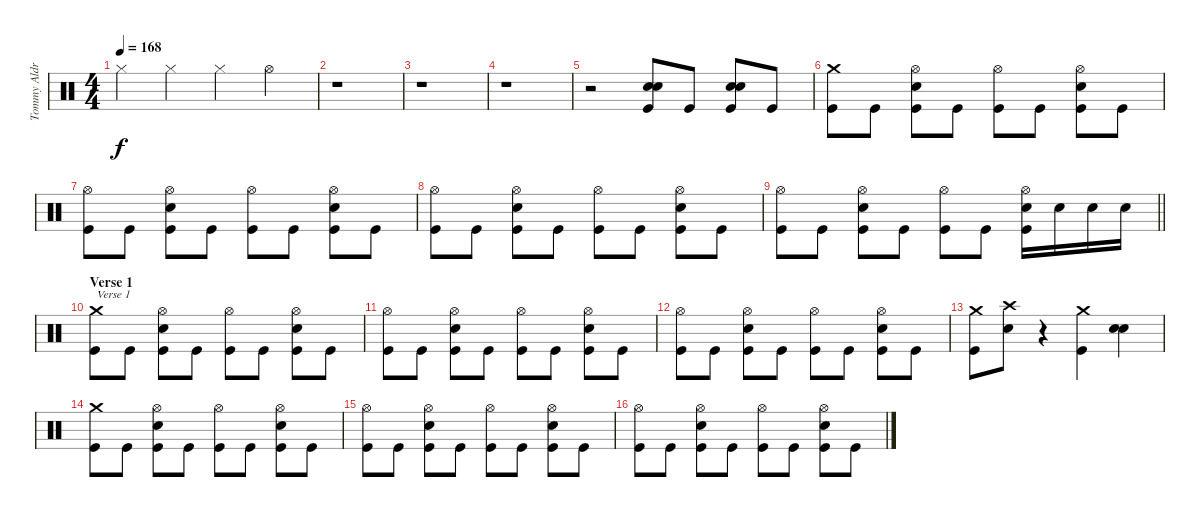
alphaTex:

\track ("Tommy Aldrige" "Tommy Aldr") {instrument percussion}
\staff {score}
\articulation defaults
\ts (4 4)
\tempo 168
\clef neutral
\ks c "Hi-Hat (closed)".4{dy f} "Hi-Hat (closed)".4 "Hi-Hat (closed)".4 "Hi-Hat (open)".4
|
r.1 |
r.1 |
r.1 |
r.2 ("Snare (hit) 2" "Snare (hit) 2" "Kick (hit)").8{bd 240} "Kick (hit)".8 ("Snare (hit) 2" "Snare (hit) 2" "Kick (hit)").8{bd 240} "Kick (hit)".8 |
("Crash medium (hit)" "Kick (hit)").8 "Kick (hit)".8 ("Hi-Hat (open)" "Snare (hit) 2" "Kick (hit)").8 "Kick (hit)".8 ("Hi-Hat (open)" "Kick (hit)").8 "Kick (hit)".8 ("Hi-Hat (open)" "Snare (hit) 2" "Kick (hit)").8 "Kick (hit)".8 |
("Hi-Hat (open)" "Kick (hit)").8 "Kick (hit)".8 ("Hi-Hat (open)" "Snare (hit) 2" "Kick (hit)").8 "Kick (hit)".8 ("Hi-Hat (open)" "Kick (hit)").8 "Kick (hit)".8 ("Hi-Hat (open)" "Snare (hit) 2" "Kick (hit)").8 "Kick (hit)".8 |
("Hi-Hat (open)" "Kick (hit)").8 "Kick (hit)".8 ("Hi-Hat (open)" "Snare (hit) 2" "Kick (hit)").8 "Kick (hit)".8 ("Hi-Hat (open)" "Kick (hit)").8 "Kick (hit)".8 ("Hi-Hat (open)" "Snare (hit) 2" "Kick (hit)").8 "Kick (hit)".8 |
\barLineRight lightlight
("Hi-Hat (open)" "Kick (hit)").8 "Kick (hit)".8 ("Hi-Hat (open)" "Snare (hit) 2" "Kick (hit)").8 "Kick (hit)".8 ("Hi-Hat (open)" "Kick (hit)").8 "Kick (hit)".8 ("Hi-Hat (open)" "Snare (hit) 2" "Kick (hit)").16 "Snare (hit) 2".16 "Snare (hit) 2".16 "Snare (hit) 2".16 |
\section ("" "Verse 1")
("Crash medium (hit)" "Kick (hit)").8{txt "Verse 1"} "Kick (hit)".8 ("Hi-Hat (open)" "Snare (hit) 2" "Kick (hit)").8 "Kick (hit)".8 ("Hi-Hat (open)" "Kick (hit)").8 "Kick (hit)".8 ("Hi-Hat (open)" "Snare (hit) 2" "Kick (hit)").8 "Kick (hit)".8 |
("Hi-Hat (open)" "Kick (hit)").8 "Kick (hit)".8 ("Hi-Hat (open)" "Snare (hit) 2" "Kick (hit)").8 "Kick (hit)".8 ("Hi-Hat (open)" "Kick (hit)").8 "Kick (hit)".8 ("Hi-Hat (open)" "Snare (hit) 2" "Kick (hit)").8 "Kick (hit)".8 |
("Hi-Hat (open)" "Kick (hit)").8 "Kick (hit)".8 ("Hi-Hat (open)" "Snare (hit) 2" "Kick (hit)").8 "Kick (hit)".8 ("Hi-Hat (open)" "Kick (hit)").8 "Kick (hit)".8 ("Hi-Hat (open)" "Snare (hit) 2" "Kick (hit)").8 "Kick (hit)".8 |
("Crash medium (hit)" "Kick (hit)").8 ("Crash high (hit)" "Snare (hit) 2").8 r.4 ("Crash medium (hit)" "Kick (hit)").4 ("Snare (hit) 2" "Snare (hit) 2").4{bd 240} |
("Crash medium (hit)" "Kick (hit)").8 "Kick (hit)".8 ("Hi-Hat (open)" "Snare (hit) 2" "Kick (hit)").8 "Kick (hit)".8 ("Hi-Hat (open)" "Kick (hit)").8 "Kick (hit)".8 ("Hi-Hat (open)" "Snare (hit) 2" "Kick (hit)").8 "Kick (hit)".8 |
("Hi-Hat (open)" "Kick (hit)").8 "Kick (hit)".8 ("Hi-Hat (open)" "Snare (hit) 2" "Kick (hit)").8 "Kick (hit)".8 ("Hi-Hat (open)" "Kick (hit)").8 "Kick (hit)".8 ("Hi-Hat (open)" "Snare (hit) 2" "Kick (hit)").8 "Kick (hit)".8 |
("Hi-Hat (open)" "Kick (hit)").8 "Kick (hit)".8 ("Hi-Hat (open)" "Snare (hit) 2" "Kick (hit)").8 "Kick (hit)".8 ("Hi-Hat (open)" "Kick (hit)").8 "Kick (hit)".8 ("Hi-Hat (open)" "Snare (hit) 2" "Kick (hit)").8 "Kick (hit)".8
